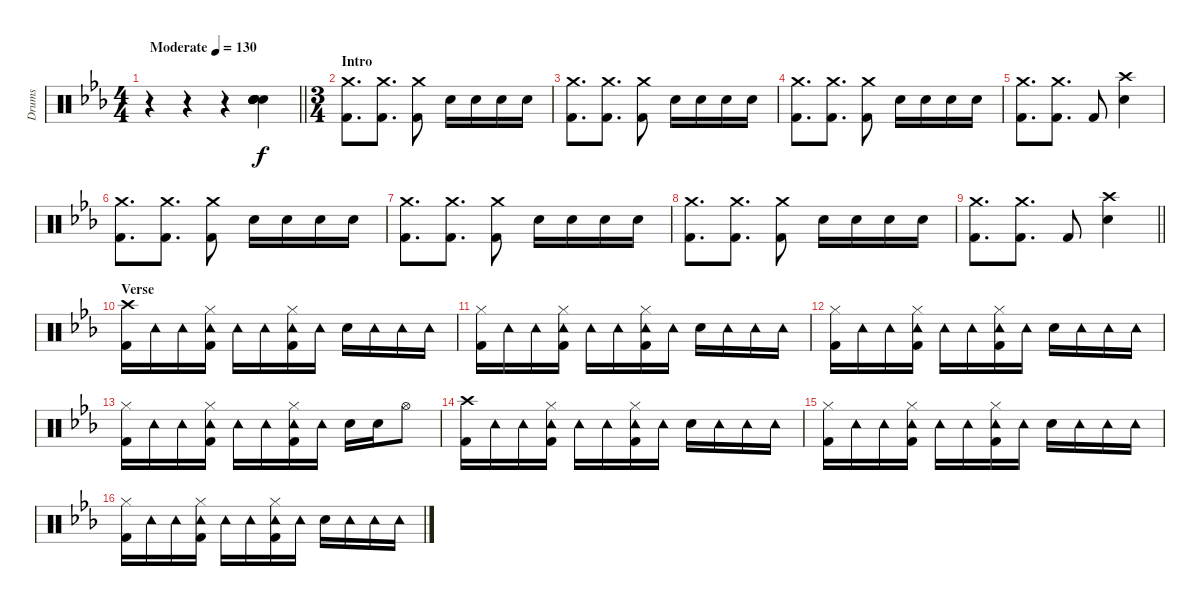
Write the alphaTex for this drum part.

\track ("Drums" "Drums") {instrument percussion}
\staff {score}
\articulation defaults
\ts (4 4)
\tempo (130 "Moderate")
\clef neutral
\barLineRight lightlight
\ks eb
r.4{dy f} r.4 r.4 ("Electric Snare (hit)" "Electric Snare (hit)" "Electric Snare (hit)" "Snare (hit) 2" "Snare (hit) 2").4 |
\ts (3 4)
\section ("" "Intro")
\ks eb
("Crash medium (hit)" "Kick (hit) 2").8{d} ("Crash medium (hit)" "Kick (hit) 2").8{d} ("Crash medium (hit)" "Kick (hit) 2").8 "Electric Snare (hit)".16 "Electric Snare (hit)".16 "Electric Snare (hit)".16 "Electric Snare (hit)".16 |
("Crash medium (hit)" "Kick (hit) 2").8{d} ("Crash medium (hit)" "Kick (hit) 2").8{d} ("Crash medium (hit)" "Kick (hit) 2").8 "Electric Snare (hit)".16 "Electric Snare (hit)".16 "Electric Snare (hit)".16 "Electric Snare (hit)".16 |
("Crash medium (hit)" "Kick (hit) 2").8{d} ("Crash medium (hit)" "Kick (hit) 2").8{d} ("Crash medium (hit)" "Kick (hit) 2").8 "Electric Snare (hit)".16 "Electric Snare (hit)".16 "Electric Snare (hit)".16 "Electric Snare (hit)".16 |
("Crash medium (hit)" "Kick (hit) 2").8{d} ("Crash medium (hit)" "Kick (hit) 2").8{d} "Kick (hit) 2".8 ("Crash high (hit)" "Electric Snare (hit)").4 |
("Crash medium (hit)" "Kick (hit) 2").8{d} ("Crash medium (hit)" "Kick (hit) 2").8{d} ("Crash medium (hit)" "Kick (hit) 2").8 "Electric Snare (hit)".16 "Electric Snare (hit)".16 "Electric Snare (hit)".16 "Electric Snare (hit)".16 |
("Crash medium (hit)" "Kick (hit) 2").8{d} ("Crash medium (hit)" "Kick (hit) 2").8{d} ("Crash medium (hit)" "Kick (hit) 2").8 "Electric Snare (hit)".16 "Electric Snare (hit)".16 "Electric Snare (hit)".16 "Electric Snare (hit)".16 |
("Crash medium (hit)" "Kick (hit) 2").8{d} ("Crash medium (hit)" "Kick (hit) 2").8{d} ("Crash medium (hit)" "Kick (hit) 2").8 "Electric Snare (hit)".16 "Electric Snare (hit)".16 "Electric Snare (hit)".16 "Electric Snare (hit)".16 |
\barLineRight lightlight
("Crash medium (hit)" "Kick (hit) 2").8{d} ("Crash medium (hit)" "Kick (hit) 2").8{d} "Kick (hit) 2".8 ("Crash high (hit)" "Electric Snare (hit)").4 |
\section ("" "Verse")
("Crash high (hit)" "Kick (hit) 2").16 "Tambourine (hit)".16 "Tambourine (hit)".16 ("Hi-Hat (closed)" "Kick (hit) 2" "Tambourine (hit)").16 "Tambourine (hit)".16 "Tambourine (hit)".16 ("Hi-Hat (closed)" "Kick (hit) 2" "Tambourine (hit)").16 "Tambourine (hit)".16 "Electric Snare (hit)".16 "Tambourine (hit)".16 "Tambourine (hit)".16 "Tambourine (hit)".16 |
("Hi-Hat (closed)" "Kick (hit) 2").16 "Tambourine (hit)".16 "Tambourine (hit)".16 ("Hi-Hat (closed)" "Kick (hit) 2" "Tambourine (hit)").16 "Tambourine (hit)".16 "Tambourine (hit)".16 ("Hi-Hat (closed)" "Kick (hit) 2" "Tambourine (hit)").16 "Tambourine (hit)".16 "Electric Snare (hit)".16 "Tambourine (hit)".16 "Tambourine (hit)".16 "Tambourine (hit)".16 |
("Hi-Hat (closed)" "Kick (hit) 2").16 "Tambourine (hit)".16 "Tambourine (hit)".16 ("Hi-Hat (closed)" "Kick (hit) 2" "Tambourine (hit)").16 "Tambourine (hit)".16 "Tambourine (hit)".16 ("Hi-Hat (closed)" "Kick (hit) 2" "Tambourine (hit)").16 "Tambourine (hit)".16 "Electric Snare (hit)".16 "Tambourine (hit)".16 "Tambourine (hit)".16 "Tambourine (hit)".16 |
("Hi-Hat (closed)" "Kick (hit) 2").16 "Tambourine (hit)".16 "Tambourine (hit)".16 ("Hi-Hat (closed)" "Kick (hit) 2" "Tambourine (hit)").16 "Tambourine (hit)".16 "Tambourine (hit)".16 ("Hi-Hat (closed)" "Kick (hit) 2" "Tambourine (hit)").16 "Tambourine (hit)".16 "Electric Snare (hit)".16 "Electric Snare (hit)".16 "Hi-Hat (open)".8 |
("Crash high (hit)" "Kick (hit) 2").16 "Tambourine (hit)".16 "Tambourine (hit)".16 ("Hi-Hat (closed)" "Kick (hit) 2" "Tambourine (hit)").16 "Tambourine (hit)".16 "Tambourine (hit)".16 ("Hi-Hat (closed)" "Kick (hit) 2" "Tambourine (hit)").16 "Tambourine (hit)".16 "Electric Snare (hit)".16 "Tambourine (hit)".16 "Tambourine (hit)".16 "Tambourine (hit)".16 |
("Hi-Hat (closed)" "Kick (hit) 2").16 "Tambourine (hit)".16 "Tambourine (hit)".16 ("Hi-Hat (closed)" "Kick (hit) 2" "Tambourine (hit)").16 "Tambourine (hit)".16 "Tambourine (hit)".16 ("Hi-Hat (closed)" "Kick (hit) 2" "Tambourine (hit)").16 "Tambourine (hit)".16 "Electric Snare (hit)".16 "Tambourine (hit)".16 "Tambourine (hit)".16 "Tambourine (hit)".16 |
("Hi-Hat (closed)" "Kick (hit) 2").16 "Tambourine (hit)".16 "Tambourine (hit)".16 ("Hi-Hat (closed)" "Kick (hit) 2" "Tambourine (hit)").16 "Tambourine (hit)".16 "Tambourine (hit)".16 ("Hi-Hat (closed)" "Kick (hit) 2" "Tambourine (hit)").16 "Tambourine (hit)".16 "Electric Snare (hit)".16 "Tambourine (hit)".16 "Tambourine (hit)".16 "Tambourine (hit)".16
